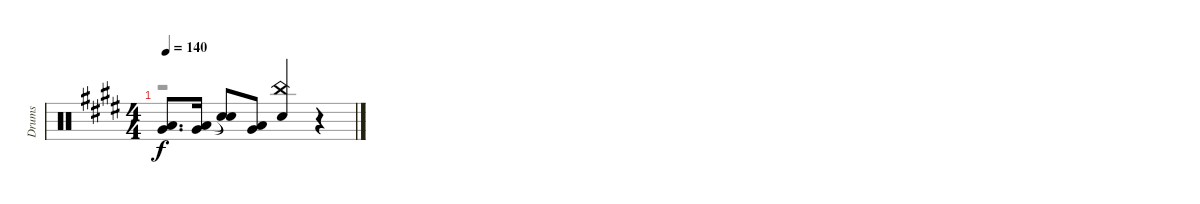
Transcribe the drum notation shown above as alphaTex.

\track ("Drums" "Drums") {instrument percussion}
\staff {score}
\articulation defaults
\voice
\ts (4 4)
\tempo 140
\clef neutral
\ks e
("Low Tom (hit)" "Very Low Tom (hit)").8{d dy f} ("Low Tom (hit)" "Very Low Tom (hit)").16 ("Snare (hit)"{t} "Snare (hit)"{t}).8 ("Low Tom (hit)" "Very Low Tom (hit)").8 ("China (hit)" "Snare (hit) 2").4 r.4
\voice
\clef neutral
\ottava regular
\simile none
\ks e
r.1{dy fff}
